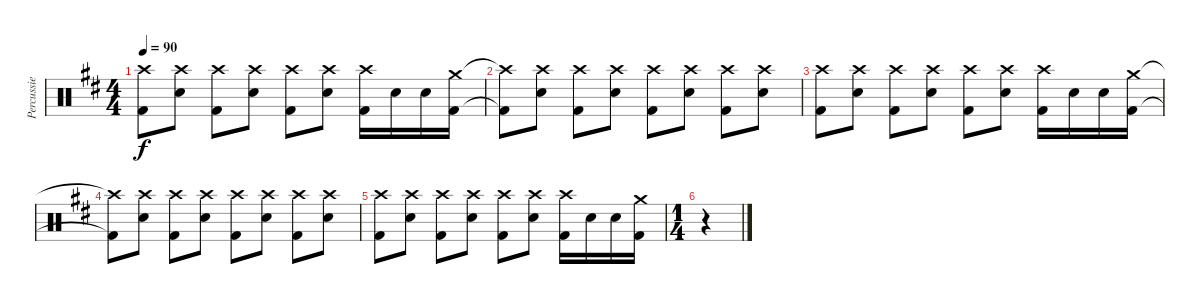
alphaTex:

\track ("Percussie" "Percussie") {instrument percussion}
\staff {score}
\articulation defaults
\ts (4 4)
\tempo 90
\clef neutral
\ks bminor
("Crash high (hit)" "Kick (hit) 2").8{dy f} ("Crash high (hit)" "Electric Snare (hit)").8 ("Crash high (hit)" "Kick (hit) 2").8 ("Crash high (hit)" "Electric Snare (hit)").8 ("Crash high (hit)" "Kick (hit) 2").8 ("Crash high (hit)" "Electric Snare (hit)").8 ("Crash high (hit)" "Kick (hit) 2").16 "Electric Snare (hit)".16 "Electric Snare (hit)".16 ("Crash medium (hit)" "Kick (hit) 2").16 |
("Crash high (hit)"{t} "Kick (hit) 2"{t}).8 ("Crash high (hit)" "Electric Snare (hit)").8 ("Crash high (hit)" "Kick (hit) 2").8 ("Crash high (hit)" "Electric Snare (hit)").8 ("Crash high (hit)" "Kick (hit) 2").8 ("Crash high (hit)" "Electric Snare (hit)").8 ("Crash high (hit)" "Kick (hit) 2").8 ("Crash high (hit)" "Electric Snare (hit)").8 |
("Crash high (hit)" "Kick (hit) 2").8 ("Crash high (hit)" "Electric Snare (hit)").8 ("Crash high (hit)" "Kick (hit) 2").8 ("Crash high (hit)" "Electric Snare (hit)").8 ("Crash high (hit)" "Kick (hit) 2").8 ("Crash high (hit)" "Electric Snare (hit)").8 ("Crash high (hit)" "Kick (hit) 2").16 "Electric Snare (hit)".16 "Electric Snare (hit)".16 ("Crash medium (hit)" "Kick (hit) 2").16 |
("Crash high (hit)"{t} "Kick (hit) 2"{t}).8 ("Crash high (hit)" "Electric Snare (hit)").8 ("Crash high (hit)" "Kick (hit) 2").8 ("Crash high (hit)" "Electric Snare (hit)").8 ("Crash high (hit)" "Kick (hit) 2").8 ("Crash high (hit)" "Electric Snare (hit)").8 ("Crash high (hit)" "Kick (hit) 2").8 ("Crash high (hit)" "Electric Snare (hit)").8 |
("Crash high (hit)" "Kick (hit) 2").8 ("Crash high (hit)" "Electric Snare (hit)").8 ("Crash high (hit)" "Kick (hit) 2").8 ("Crash high (hit)" "Electric Snare (hit)").8 ("Crash high (hit)" "Kick (hit) 2").8 ("Crash high (hit)" "Electric Snare (hit)").8 ("Crash high (hit)" "Kick (hit) 2").16 "Electric Snare (hit)".16 "Electric Snare (hit)".16 ("Crash medium (hit)" "Kick (hit) 2").16 |
\ts (1 4)
r.4
